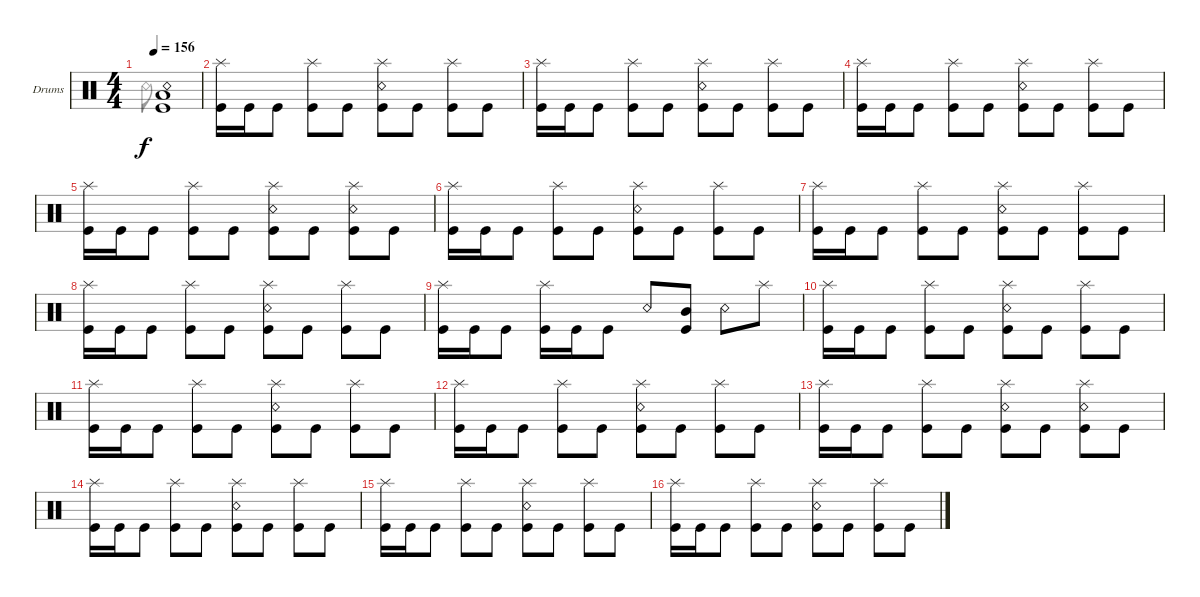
\defaultSystemsLayout 4
\bracketExtendMode groupsimilarinstruments
\firstSystemTrackNameOrientation horizontal
\otherSystemsTrackNameOrientation horizontal
\track ("Drumkit" "Drums") {instrument percussion}
\staff {score}
\articulation defaults
\voice
\ts (4 4)
\tempo 156
\clef neutral
\ks c
("Kick (hit)" "Snare (rim shot)" "Low Tom (hit)").1{dy f} |
("Kick (hit)" "Splash (hit)").16 "Kick (hit)".16 "Kick (hit)".8 ("Kick (hit)" "Splash (hit)").8 "Kick (hit)".8 ("Kick (hit)" "Snare (rim shot)" "Splash (hit)").8 "Kick (hit)".8 ("Kick (hit)" "Splash (hit)").8 "Kick (hit)".8 |
("Kick (hit)" "Splash (hit)").16 "Kick (hit)".16 "Kick (hit)".8 ("Kick (hit)" "Splash (hit)").8 "Kick (hit)".8 ("Kick (hit)" "Snare (rim shot)" "Splash (hit)").8 "Kick (hit)".8 ("Kick (hit)" "Splash (hit)").8 "Kick (hit)".8 |
("Kick (hit)" "Splash (hit)").16 "Kick (hit)".16 "Kick (hit)".8 ("Kick (hit)" "Splash (hit)").8 "Kick (hit)".8 ("Kick (hit)" "Snare (rim shot)" "Splash (hit)").8 "Kick (hit)".8 ("Kick (hit)" "Splash (hit)").8 "Kick (hit)".8 |
("Kick (hit)" "Splash (hit)").16 "Kick (hit)".16 "Kick (hit)".8 ("Kick (hit)" "Splash (hit)").8 "Kick (hit)".8 ("Kick (hit)" "Snare (rim shot)" "Splash (hit)").8 "Kick (hit)".8 ("Kick (hit)" "Snare (rim shot)" "Splash (hit)").8 "Kick (hit)".8 |
("Kick (hit)" "Splash (hit)").16 "Kick (hit)".16 "Kick (hit)".8 ("Kick (hit)" "Splash (hit)").8 "Kick (hit)".8 ("Kick (hit)" "Snare (rim shot)" "Splash (hit)").8 "Kick (hit)".8 ("Kick (hit)" "Splash (hit)").8 "Kick (hit)".8 |
("Kick (hit)" "Splash (hit)").16 "Kick (hit)".16 "Kick (hit)".8 ("Kick (hit)" "Splash (hit)").8 "Kick (hit)".8 ("Kick (hit)" "Snare (rim shot)" "Splash (hit)").8 "Kick (hit)".8 ("Kick (hit)" "Splash (hit)").8 "Kick (hit)".8 |
("Kick (hit)" "Splash (hit)").16 "Kick (hit)".16 "Kick (hit)".8 ("Kick (hit)" "Splash (hit)").8 "Kick (hit)".8 ("Kick (hit)" "Snare (rim shot)" "Splash (hit)").8 "Kick (hit)".8 ("Kick (hit)" "Splash (hit)").8 "Kick (hit)".8 |
("Kick (hit)" "Splash (hit)").16 "Kick (hit)".16 "Kick (hit)".8 ("Kick (hit)" "Splash (hit)").16 "Kick (hit)".16 "Kick (hit)".8 "Snare (rim shot)".8 ("Kick (hit)" "Mid Tom (hit)").8 "Snare (rim shot)".8 "Splash (hit)".8 |
("Kick (hit)" "Splash (hit)").16 "Kick (hit)".16 "Kick (hit)".8 ("Kick (hit)" "Splash (hit)").8 "Kick (hit)".8 ("Kick (hit)" "Snare (rim shot)" "Splash (hit)").8 "Kick (hit)".8 ("Kick (hit)" "Splash (hit)").8 "Kick (hit)".8 |
("Kick (hit)" "Splash (hit)").16 "Kick (hit)".16 "Kick (hit)".8 ("Kick (hit)" "Splash (hit)").8 "Kick (hit)".8 ("Kick (hit)" "Snare (rim shot)" "Splash (hit)").8 "Kick (hit)".8 ("Kick (hit)" "Splash (hit)").8 "Kick (hit)".8 |
("Kick (hit)" "Splash (hit)").16 "Kick (hit)".16 "Kick (hit)".8 ("Kick (hit)" "Splash (hit)").8 "Kick (hit)".8 ("Kick (hit)" "Snare (rim shot)" "Splash (hit)").8 "Kick (hit)".8 ("Kick (hit)" "Splash (hit)").8 "Kick (hit)".8 |
("Kick (hit)" "Splash (hit)").16 "Kick (hit)".16 "Kick (hit)".8 ("Kick (hit)" "Splash (hit)").8 "Kick (hit)".8 ("Kick (hit)" "Snare (rim shot)" "Splash (hit)").8 "Kick (hit)".8 ("Kick (hit)" "Snare (rim shot)" "Splash (hit)").8 "Kick (hit)".8 |
("Kick (hit)" "Splash (hit)").16 "Kick (hit)".16 "Kick (hit)".8 ("Kick (hit)" "Splash (hit)").8 "Kick (hit)".8 ("Kick (hit)" "Snare (rim shot)" "Splash (hit)").8 "Kick (hit)".8 ("Kick (hit)" "Splash (hit)").8 "Kick (hit)".8 |
("Kick (hit)" "Splash (hit)").16 "Kick (hit)".16 "Kick (hit)".8 ("Kick (hit)" "Splash (hit)").8 "Kick (hit)".8 ("Kick (hit)" "Snare (rim shot)" "Splash (hit)").8 "Kick (hit)".8 ("Kick (hit)" "Splash (hit)").8 "Kick (hit)".8 |
("Kick (hit)" "Splash (hit)").16 "Kick (hit)".16 "Kick (hit)".8 ("Kick (hit)" "Splash (hit)").8 "Kick (hit)".8 ("Kick (hit)" "Snare (rim shot)" "Splash (hit)").8 "Kick (hit)".8 ("Kick (hit)" "Splash (hit)").8 "Kick (hit)".8
\voice
\clef neutral
\ottava regular
\simile none
\ks c "Snare (rim shot)".8{dy f}
|
|
|
|
|
|
|
|
|
|
|
|
|
|
|
